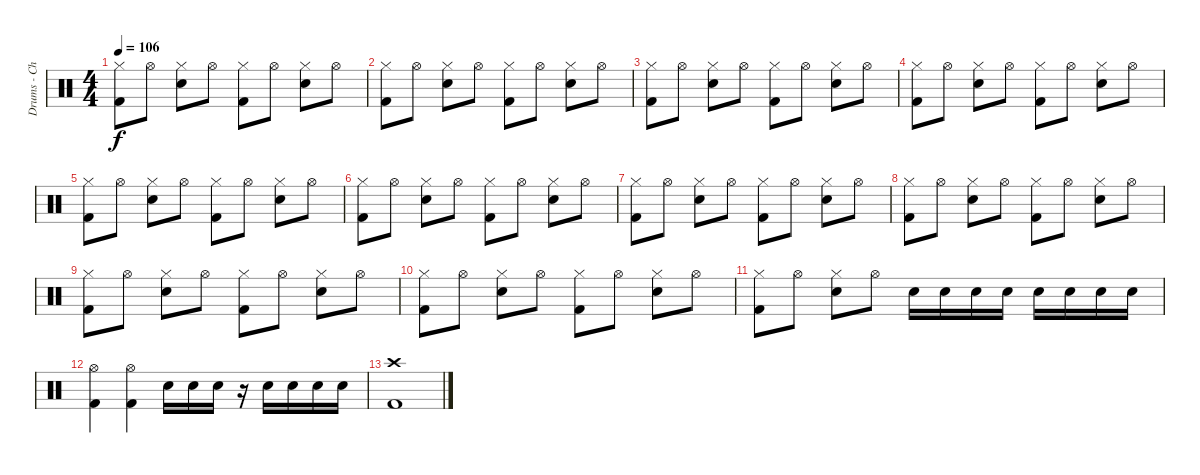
\track ("Drums - Christoph Schneider" "Drums - Ch") {instrument percussion}
\staff {score}
\articulation defaults
\ts (4 4)
\tempo 106
\clef neutral
\ks c
("Hi-Hat (closed)" "Kick (hit) 2").8{dy f} "Hi-Hat (open)".8 ("Hi-Hat (closed)" "Snare (hit) 2").8 "Hi-Hat (open)".8 ("Hi-Hat (closed)" "Kick (hit) 2").8 "Hi-Hat (open)".8 ("Hi-Hat (closed)" "Snare (hit) 2").8 "Hi-Hat (open)".8 |
("Hi-Hat (closed)" "Kick (hit) 2").8 "Hi-Hat (open)".8 ("Hi-Hat (closed)" "Snare (hit) 2").8 "Hi-Hat (open)".8 ("Hi-Hat (closed)" "Kick (hit) 2").8 "Hi-Hat (open)".8 ("Hi-Hat (closed)" "Snare (hit) 2").8 "Hi-Hat (open)".8 |
("Hi-Hat (closed)" "Kick (hit) 2").8 "Hi-Hat (open)".8 ("Hi-Hat (closed)" "Snare (hit) 2").8 "Hi-Hat (open)".8 ("Hi-Hat (closed)" "Kick (hit) 2").8 "Hi-Hat (open)".8 ("Hi-Hat (closed)" "Snare (hit) 2").8 "Hi-Hat (open)".8 |
("Hi-Hat (closed)" "Kick (hit) 2").8 "Hi-Hat (open)".8 ("Hi-Hat (closed)" "Snare (hit) 2").8 "Hi-Hat (open)".8 ("Hi-Hat (closed)" "Kick (hit) 2").8 "Hi-Hat (open)".8 ("Hi-Hat (closed)" "Snare (hit) 2").8 "Hi-Hat (open)".8 |
("Hi-Hat (closed)" "Kick (hit) 2").8 "Hi-Hat (open)".8 ("Hi-Hat (closed)" "Snare (hit) 2").8 "Hi-Hat (open)".8 ("Hi-Hat (closed)" "Kick (hit) 2").8 "Hi-Hat (open)".8 ("Hi-Hat (closed)" "Snare (hit) 2").8 "Hi-Hat (open)".8 |
("Hi-Hat (closed)" "Kick (hit) 2").8 "Hi-Hat (open)".8 ("Hi-Hat (closed)" "Snare (hit) 2").8 "Hi-Hat (open)".8 ("Hi-Hat (closed)" "Kick (hit) 2").8 "Hi-Hat (open)".8 ("Hi-Hat (closed)" "Snare (hit) 2").8 "Hi-Hat (open)".8 |
("Hi-Hat (closed)" "Kick (hit) 2").8 "Hi-Hat (open)".8 ("Hi-Hat (closed)" "Snare (hit) 2").8 "Hi-Hat (open)".8 ("Hi-Hat (closed)" "Kick (hit) 2").8 "Hi-Hat (open)".8 ("Hi-Hat (closed)" "Snare (hit) 2").8 "Hi-Hat (open)".8 |
("Hi-Hat (closed)" "Kick (hit) 2").8 "Hi-Hat (open)".8 ("Hi-Hat (closed)" "Snare (hit) 2").8 "Hi-Hat (open)".8 ("Hi-Hat (closed)" "Kick (hit) 2").8 "Hi-Hat (open)".8 ("Hi-Hat (closed)" "Snare (hit) 2").8 "Hi-Hat (open)".8 |
("Hi-Hat (closed)" "Kick (hit) 2").8 "Hi-Hat (open)".8 ("Hi-Hat (closed)" "Snare (hit) 2").8 "Hi-Hat (open)".8 ("Hi-Hat (closed)" "Kick (hit) 2").8 "Hi-Hat (open)".8 ("Hi-Hat (closed)" "Snare (hit) 2").8 "Hi-Hat (open)".8 |
("Hi-Hat (closed)" "Kick (hit) 2").8 "Hi-Hat (open)".8 ("Hi-Hat (closed)" "Snare (hit) 2").8 "Hi-Hat (open)".8 ("Hi-Hat (closed)" "Kick (hit) 2").8 "Hi-Hat (open)".8 ("Hi-Hat (closed)" "Snare (hit) 2").8 "Hi-Hat (open)".8 |
("Hi-Hat (closed)" "Kick (hit) 2").8 "Hi-Hat (open)".8 ("Hi-Hat (closed)" "Snare (hit) 2").8 "Hi-Hat (open)".8 "Snare (hit) 2".16 "Snare (hit) 2".16 "Snare (hit) 2".16 "Snare (hit) 2".16 "Snare (hit) 2".16 "Snare (hit) 2".16 "Snare (hit) 2".16 "Snare (hit) 2".16 |
("Hi-Hat (open)" "Kick (hit) 2").4 ("Hi-Hat (open)" "Kick (hit) 2").4 "Snare (hit) 2".16 "Snare (hit) 2".16 "Snare (hit) 2".16 r.16 "Snare (hit) 2".16 "Snare (hit) 2".16 "Snare (hit) 2".16 "Snare (hit) 2".16 |
("Crash high (hit)" "Kick (hit) 2").1
